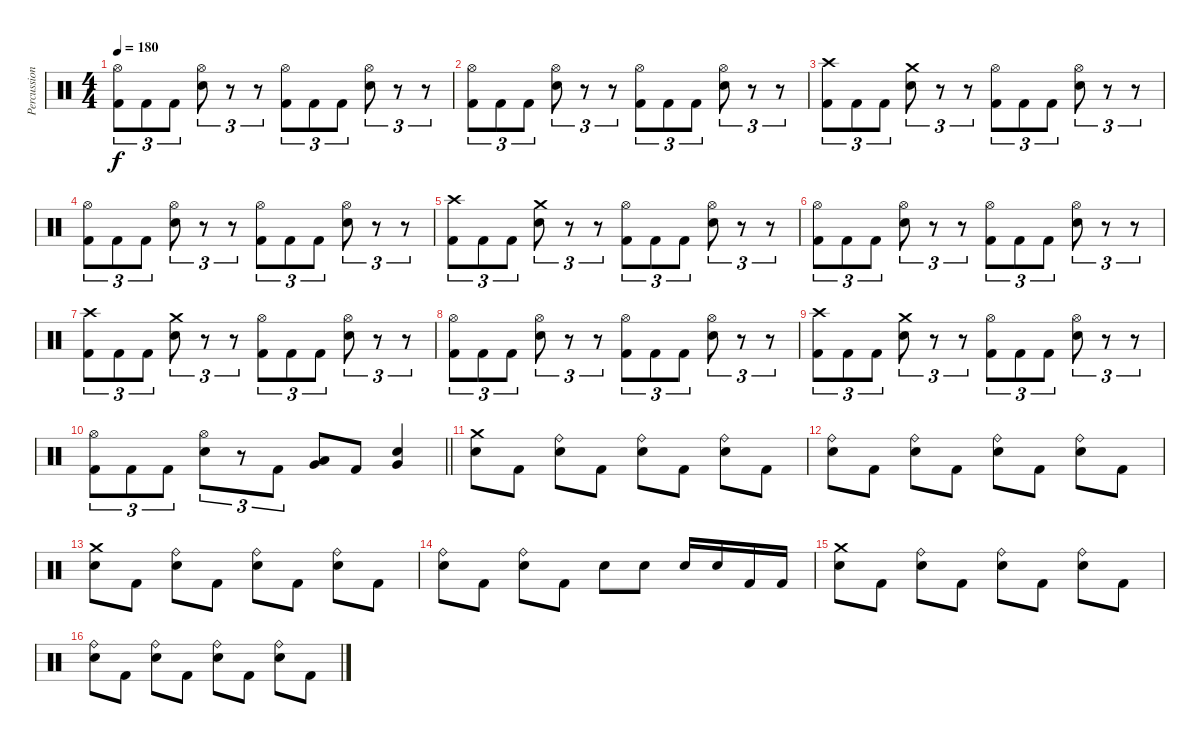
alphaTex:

\track ("Percussion" "Percussion") {instrument percussion}
\staff {score}
\articulation defaults
\ts (4 4)
\tempo 180
\clef neutral
\ks c
("Hi-Hat (open)" "Kick (hit) 2").8{tu (3 2) dy f} "Kick (hit) 2".8{tu (3 2)} "Kick (hit) 2".8{tu (3 2)} ("Hi-Hat (open)" "Snare (hit) 2").8{tu (3 2)} r.8{tu (3 2)} r.8{tu (3 2)} ("Hi-Hat (open)" "Kick (hit) 2").8{tu (3 2)} "Kick (hit) 2".8{tu (3 2)} "Kick (hit) 2".8{tu (3 2)} ("Hi-Hat (open)" "Snare (hit) 2").8{tu (3 2)} r.8{tu (3 2)} r.8{tu (3 2)} |
("Hi-Hat (open)" "Kick (hit) 2").8{tu (3 2)} "Kick (hit) 2".8{tu (3 2)} "Kick (hit) 2".8{tu (3 2)} ("Hi-Hat (open)" "Snare (hit) 2").8{tu (3 2)} r.8{tu (3 2)} r.8{tu (3 2)} ("Hi-Hat (open)" "Kick (hit) 2").8{tu (3 2)} "Kick (hit) 2".8{tu (3 2)} "Kick (hit) 2".8{tu (3 2)} ("Hi-Hat (open)" "Snare (hit) 2").8{tu (3 2)} r.8{tu (3 2)} r.8{tu (3 2)} |
("Crash high (hit)" "Kick (hit) 2").8{tu (3 2)} "Kick (hit) 2".8{tu (3 2)} "Kick (hit) 2".8{tu (3 2)} ("Crash medium (hit)" "Snare (hit) 2").8{tu (3 2)} r.8{tu (3 2)} r.8{tu (3 2)} ("Hi-Hat (open)" "Kick (hit) 2").8{tu (3 2)} "Kick (hit) 2".8{tu (3 2)} "Kick (hit) 2".8{tu (3 2)} ("Hi-Hat (open)" "Snare (hit) 2").8{tu (3 2)} r.8{tu (3 2)} r.8{tu (3 2)} |
("Hi-Hat (open)" "Kick (hit) 2").8{tu (3 2)} "Kick (hit) 2".8{tu (3 2)} "Kick (hit) 2".8{tu (3 2)} ("Hi-Hat (open)" "Snare (hit) 2").8{tu (3 2)} r.8{tu (3 2)} r.8{tu (3 2)} ("Hi-Hat (open)" "Kick (hit) 2").8{tu (3 2)} "Kick (hit) 2".8{tu (3 2)} "Kick (hit) 2".8{tu (3 2)} ("Hi-Hat (open)" "Snare (hit) 2").8{tu (3 2)} r.8{tu (3 2)} r.8{tu (3 2)} |
("Crash high (hit)" "Kick (hit) 2").8{tu (3 2)} "Kick (hit) 2".8{tu (3 2)} "Kick (hit) 2".8{tu (3 2)} ("Crash medium (hit)" "Snare (hit) 2").8{tu (3 2)} r.8{tu (3 2)} r.8{tu (3 2)} ("Hi-Hat (open)" "Kick (hit) 2").8{tu (3 2)} "Kick (hit) 2".8{tu (3 2)} "Kick (hit) 2".8{tu (3 2)} ("Hi-Hat (open)" "Snare (hit) 2").8{tu (3 2)} r.8{tu (3 2)} r.8{tu (3 2)} |
("Hi-Hat (open)" "Kick (hit) 2").8{tu (3 2)} "Kick (hit) 2".8{tu (3 2)} "Kick (hit) 2".8{tu (3 2)} ("Hi-Hat (open)" "Snare (hit) 2").8{tu (3 2)} r.8{tu (3 2)} r.8{tu (3 2)} ("Hi-Hat (open)" "Kick (hit) 2").8{tu (3 2)} "Kick (hit) 2".8{tu (3 2)} "Kick (hit) 2".8{tu (3 2)} ("Hi-Hat (open)" "Snare (hit) 2").8{tu (3 2)} r.8{tu (3 2)} r.8{tu (3 2)} |
("Crash high (hit)" "Kick (hit) 2").8{tu (3 2)} "Kick (hit) 2".8{tu (3 2)} "Kick (hit) 2".8{tu (3 2)} ("Crash medium (hit)" "Snare (hit) 2").8{tu (3 2)} r.8{tu (3 2)} r.8{tu (3 2)} ("Hi-Hat (open)" "Kick (hit) 2").8{tu (3 2)} "Kick (hit) 2".8{tu (3 2)} "Kick (hit) 2".8{tu (3 2)} ("Hi-Hat (open)" "Snare (hit) 2").8{tu (3 2)} r.8{tu (3 2)} r.8{tu (3 2)} |
("Hi-Hat (open)" "Kick (hit) 2").8{tu (3 2)} "Kick (hit) 2".8{tu (3 2)} "Kick (hit) 2".8{tu (3 2)} ("Hi-Hat (open)" "Snare (hit) 2").8{tu (3 2)} r.8{tu (3 2)} r.8{tu (3 2)} ("Hi-Hat (open)" "Kick (hit) 2").8{tu (3 2)} "Kick (hit) 2".8{tu (3 2)} "Kick (hit) 2".8{tu (3 2)} ("Hi-Hat (open)" "Snare (hit) 2").8{tu (3 2)} r.8{tu (3 2)} r.8{tu (3 2)} |
("Crash high (hit)" "Kick (hit) 2").8{tu (3 2)} "Kick (hit) 2".8{tu (3 2)} "Kick (hit) 2".8{tu (3 2)} ("Crash medium (hit)" "Snare (hit) 2").8{tu (3 2)} r.8{tu (3 2)} r.8{tu (3 2)} ("Hi-Hat (open)" "Kick (hit) 2").8{tu (3 2)} "Kick (hit) 2".8{tu (3 2)} "Kick (hit) 2".8{tu (3 2)} ("Hi-Hat (open)" "Snare (hit) 2").8{tu (3 2)} r.8{tu (3 2)} r.8{tu (3 2)} |
\barLineRight lightlight
("Hi-Hat (open)" "Kick (hit) 2").8{tu (3 2)} "Kick (hit) 2".8{tu (3 2)} "Kick (hit) 2".8{tu (3 2)} ("Hi-Hat (open)" "Snare (hit) 2").8{tu (3 2)} r.8{tu (3 2)} "Kick (hit) 2".8{tu (3 2)} ("Low Tom (hit)" "Very Low Tom (hit)").8 "Kick (hit) 2".8 ("Snare (hit) 2" "Very Low Tom (hit)").4 |
\section ("" "")
("Crash medium (hit)" "Snare (hit) 2").8 "Kick (hit) 2".8 ("Ride (bell)" "Snare (hit) 2").8 "Kick (hit) 2".8 ("Ride (bell)" "Snare (hit) 2").8 "Kick (hit) 2".8 ("Ride (bell)" "Snare (hit) 2").8 "Kick (hit) 2".8 |
("Ride (bell)" "Snare (hit) 2").8 "Kick (hit) 2".8 ("Ride (bell)" "Snare (hit) 2").8 "Kick (hit) 2".8 ("Ride (bell)" "Snare (hit) 2").8 "Kick (hit) 2".8 ("Ride (bell)" "Snare (hit) 2").8 "Kick (hit) 2".8 |
("Crash medium (hit)" "Snare (hit) 2").8 "Kick (hit) 2".8 ("Ride (bell)" "Snare (hit) 2").8 "Kick (hit) 2".8 ("Ride (bell)" "Snare (hit) 2").8 "Kick (hit) 2".8 ("Ride (bell)" "Snare (hit) 2").8 "Kick (hit) 2".8 |
("Ride (bell)" "Snare (hit) 2").8 "Kick (hit) 2".8 ("Ride (bell)" "Snare (hit) 2").8 "Kick (hit) 2".8 "Snare (hit) 2".8 "Snare (hit) 2".8 "Snare (hit) 2".16 "Snare (hit) 2".16 "Kick (hit) 2".16 "Kick (hit) 2".16 |
("Crash medium (hit)" "Snare (hit) 2").8 "Kick (hit) 2".8 ("Ride (bell)" "Snare (hit) 2").8 "Kick (hit) 2".8 ("Ride (bell)" "Snare (hit) 2").8 "Kick (hit) 2".8 ("Ride (bell)" "Snare (hit) 2").8 "Kick (hit) 2".8 |
("Ride (bell)" "Snare (hit) 2").8 "Kick (hit) 2".8 ("Ride (bell)" "Snare (hit) 2").8 "Kick (hit) 2".8 ("Ride (bell)" "Snare (hit) 2").8 "Kick (hit) 2".8 ("Ride (bell)" "Snare (hit) 2").8 "Kick (hit) 2".8
